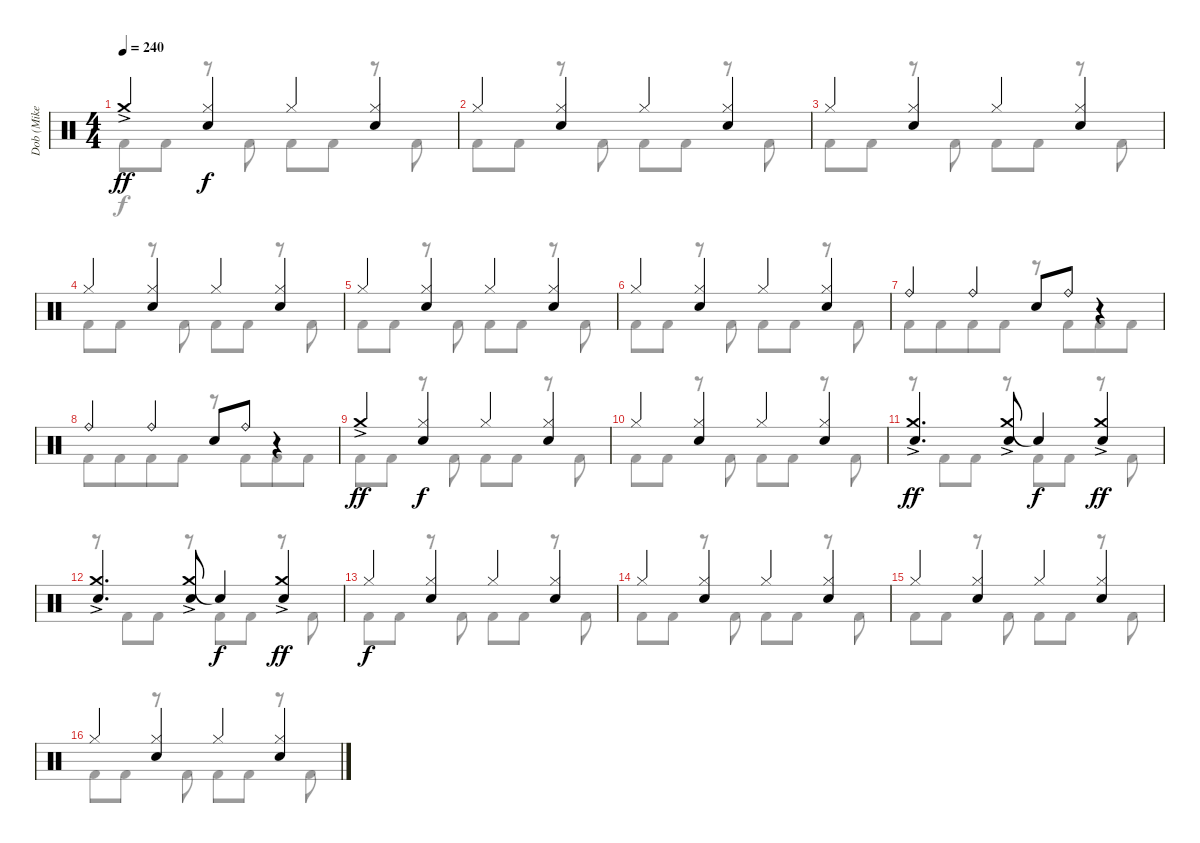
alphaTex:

\track ("Dob (Mike Terrana)" "Dob (Mike ") {instrument percussion}
\staff {score}
\articulation defaults
\voice
\ts (4 4)
\tempo 240
\clef neutral
\ks c "Crash medium (hit)"{ac}.4{dy ff}
("Hi-Hat (closed)" "Electric Snare (hit)").4{dy f} "Hi-Hat (closed)".4 ("Hi-Hat (closed)" "Electric Snare (hit)").4 |
"Hi-Hat (closed)".4 ("Hi-Hat (closed)" "Electric Snare (hit)").4 "Hi-Hat (closed)".4 ("Hi-Hat (closed)" "Electric Snare (hit)").4 |
"Hi-Hat (closed)".4 ("Hi-Hat (closed)" "Electric Snare (hit)").4 "Hi-Hat (closed)".4 ("Hi-Hat (closed)" "Electric Snare (hit)").4 |
"Hi-Hat (closed)".4 ("Hi-Hat (closed)" "Electric Snare (hit)").4 "Hi-Hat (closed)".4 ("Hi-Hat (closed)" "Electric Snare (hit)").4 |
"Hi-Hat (closed)".4 ("Hi-Hat (closed)" "Electric Snare (hit)").4 "Hi-Hat (closed)".4 ("Hi-Hat (closed)" "Electric Snare (hit)").4 |
"Hi-Hat (closed)".4 ("Hi-Hat (closed)" "Electric Snare (hit)").4 "Hi-Hat (closed)".4 ("Hi-Hat (closed)" "Electric Snare (hit)").4 |
"Ride (bell)".4 "Ride (bell)".4 "Electric Snare (hit)".8 "Ride (bell)".8 r.4 |
"Ride (bell)".4 "Ride (bell)".4 "Electric Snare (hit)".8 "Ride (bell)".8 r.4 |
"Crash medium (hit)"{ac}.4{dy ff} ("Hi-Hat (closed)" "Electric Snare (hit)").4{dy f} "Hi-Hat (closed)".4 ("Hi-Hat (closed)" "Electric Snare (hit)").4 |
"Hi-Hat (closed)".4 ("Hi-Hat (closed)" "Electric Snare (hit)").4 "Hi-Hat (closed)".4 ("Hi-Hat (closed)" "Electric Snare (hit)").4 |
("Crash medium (hit)"{ac} "Electric Snare (hit)").4{d dy ff} ("Crash medium (hit)"{ac} "Electric Snare (hit)").8 "Snare (hit)"{t}.4{dy f} ("Crash medium (hit)"{ac} "Electric Snare (hit)").4{dy ff} |
("Crash medium (hit)"{ac} "Electric Snare (hit)").4{d} ("Crash medium (hit)"{ac} "Electric Snare (hit)").8 "Snare (hit)"{t}.4{dy f} ("Crash medium (hit)"{ac} "Electric Snare (hit)").4{dy ff} |
"Hi-Hat (closed)".4{dy f} ("Hi-Hat (closed)" "Electric Snare (hit)").4 "Hi-Hat (closed)".4 ("Hi-Hat (closed)" "Electric Snare (hit)").4 |
"Hi-Hat (closed)".4 ("Hi-Hat (closed)" "Electric Snare (hit)").4 "Hi-Hat (closed)".4 ("Hi-Hat (closed)" "Electric Snare (hit)").4 |
"Hi-Hat (closed)".4 ("Hi-Hat (closed)" "Electric Snare (hit)").4 "Hi-Hat (closed)".4 ("Hi-Hat (closed)" "Electric Snare (hit)").4 |
"Hi-Hat (closed)".4 ("Hi-Hat (closed)" "Electric Snare (hit)").4 "Hi-Hat (closed)".4 ("Hi-Hat (closed)" "Electric Snare (hit)").4
\voice
\clef neutral
\ottava regular
\simile none
\ks c "Kick (hit) 2".8{dy f} "Kick (hit) 2".8
r.8 "Kick (hit) 2".8 "Kick (hit) 2".8 "Kick (hit) 2".8 r.8 "Kick (hit) 2".8 |
"Kick (hit) 2".8 "Kick (hit) 2".8 r.8 "Kick (hit) 2".8 "Kick (hit) 2".8 "Kick (hit) 2".8 r.8 "Kick (hit) 2".8 |
"Kick (hit) 2".8 "Kick (hit) 2".8 r.8 "Kick (hit) 2".8 "Kick (hit) 2".8 "Kick (hit) 2".8 r.8 "Kick (hit) 2".8 |
"Kick (hit) 2".8 "Kick (hit) 2".8 r.8 "Kick (hit) 2".8 "Kick (hit) 2".8 "Kick (hit) 2".8 r.8 "Kick (hit) 2".8 |
"Kick (hit) 2".8 "Kick (hit) 2".8 r.8 "Kick (hit) 2".8 "Kick (hit) 2".8 "Kick (hit) 2".8 r.8 "Kick (hit) 2".8 |
"Kick (hit) 2".8 "Kick (hit) 2".8 r.8 "Kick (hit) 2".8 "Kick (hit) 2".8 "Kick (hit) 2".8 r.8 "Kick (hit) 2".8 |
"Kick (hit) 2".8 "Kick (hit) 2".8{beam merge} "Kick (hit) 2".8 "Kick (hit) 2".8 r.8 "Kick (hit) 2".8{beam merge} "Kick (hit) 2".8 "Kick (hit) 2".8 |
"Kick (hit) 2".8 "Kick (hit) 2".8{beam merge} "Kick (hit) 2".8 "Kick (hit) 2".8 r.8 "Kick (hit) 2".8{beam merge} "Kick (hit) 2".8 "Kick (hit) 2".8 |
"Kick (hit) 2".8 "Kick (hit) 2".8 r.8 "Kick (hit) 2".8 "Kick (hit) 2".8 "Kick (hit) 2".8 r.8 "Kick (hit) 2".8 |
"Kick (hit) 2".8 "Kick (hit) 2".8 r.8 "Kick (hit) 2".8 "Kick (hit) 2".8 "Kick (hit) 2".8 r.8 "Kick (hit) 2".8 |
r.8 "Kick (hit) 2".8{beam merge} "Kick (hit) 2".8 r.8 "Kick (hit) 2".8 "Kick (hit) 2".8 r.8 "Kick (hit) 2".8 |
r.8 "Kick (hit) 2".8{beam merge} "Kick (hit) 2".8 r.8 "Kick (hit) 2".8 "Kick (hit) 2".8 r.8 "Kick (hit) 2".8 |
"Kick (hit) 2".8 "Kick (hit) 2".8 r.8 "Kick (hit) 2".8 "Kick (hit) 2".8 "Kick (hit) 2".8 r.8 "Kick (hit) 2".8 |
"Kick (hit) 2".8 "Kick (hit) 2".8 r.8 "Kick (hit) 2".8 "Kick (hit) 2".8 "Kick (hit) 2".8 r.8 "Kick (hit) 2".8 |
"Kick (hit) 2".8 "Kick (hit) 2".8 r.8 "Kick (hit) 2".8 "Kick (hit) 2".8 "Kick (hit) 2".8 r.8 "Kick (hit) 2".8 |
"Kick (hit) 2".8 "Kick (hit) 2".8 r.8 "Kick (hit) 2".8 "Kick (hit) 2".8 "Kick (hit) 2".8 r.8 "Kick (hit) 2".8
